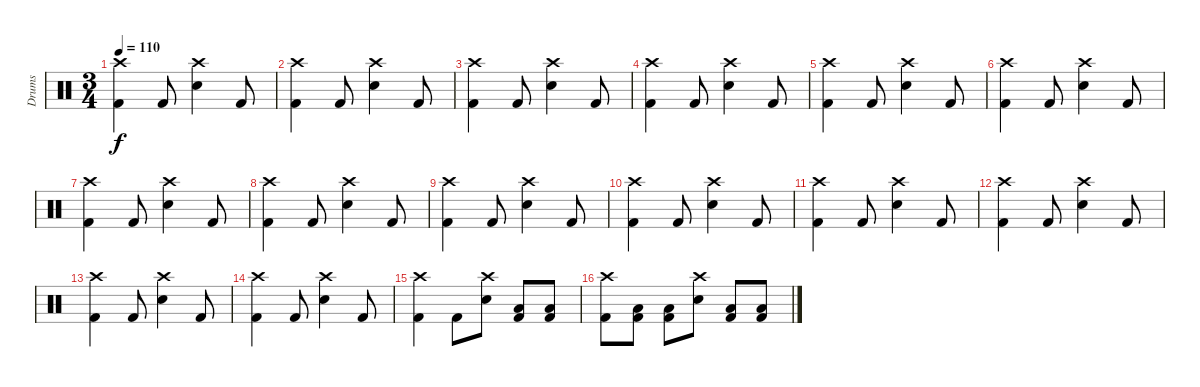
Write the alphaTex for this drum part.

\track ("Drums" "Drums") {instrument percussion}
\staff {score}
\articulation defaults
\ts (3 4)
\tempo 110
\clef neutral
\ks c
("Crash high (hit)" "Kick (hit) 2").4{dy f} "Kick (hit) 2".8 ("Crash high (hit)" "Snare (hit) 2").4 "Kick (hit) 2".8 |
("Crash high (hit)" "Kick (hit) 2").4 "Kick (hit) 2".8 ("Crash high (hit)" "Snare (hit) 2").4 "Kick (hit) 2".8 |
("Crash high (hit)" "Kick (hit) 2").4 "Kick (hit) 2".8 ("Crash high (hit)" "Snare (hit) 2").4 "Kick (hit) 2".8 |
("Crash high (hit)" "Kick (hit) 2").4 "Kick (hit) 2".8 ("Crash high (hit)" "Snare (hit) 2").4 "Kick (hit) 2".8 |
("Crash high (hit)" "Kick (hit) 2").4 "Kick (hit) 2".8 ("Crash high (hit)" "Snare (hit) 2").4 "Kick (hit) 2".8 |
("Crash high (hit)" "Kick (hit) 2").4 "Kick (hit) 2".8 ("Crash high (hit)" "Snare (hit) 2").4 "Kick (hit) 2".8 |
("Crash high (hit)" "Kick (hit) 2").4 "Kick (hit) 2".8 ("Crash high (hit)" "Snare (hit) 2").4 "Kick (hit) 2".8 |
("Crash high (hit)" "Kick (hit) 2").4 "Kick (hit) 2".8 ("Crash high (hit)" "Snare (hit) 2").4 "Kick (hit) 2".8 |
("Crash high (hit)" "Kick (hit) 2").4 "Kick (hit) 2".8 ("Crash high (hit)" "Snare (hit) 2").4 "Kick (hit) 2".8 |
("Crash high (hit)" "Kick (hit) 2").4 "Kick (hit) 2".8 ("Crash high (hit)" "Snare (hit) 2").4 "Kick (hit) 2".8 |
("Crash high (hit)" "Kick (hit) 2").4 "Kick (hit) 2".8 ("Crash high (hit)" "Snare (hit) 2").4 "Kick (hit) 2".8 |
("Crash high (hit)" "Kick (hit) 2").4 "Kick (hit) 2".8 ("Crash high (hit)" "Snare (hit) 2").4 "Kick (hit) 2".8 |
("Crash high (hit)" "Kick (hit) 2").4 "Kick (hit) 2".8 ("Crash high (hit)" "Snare (hit) 2").4 "Kick (hit) 2".8 |
("Crash high (hit)" "Kick (hit) 2").4 "Kick (hit) 2".8 ("Crash high (hit)" "Snare (hit) 2").4 "Kick (hit) 2".8 |
("Crash high (hit)" "Kick (hit) 2").4 "Kick (hit) 2".8 ("Crash high (hit)" "Snare (hit) 2").8 ("Low Tom (hit)" "Kick (hit) 2").8 ("Low Tom (hit)" "Kick (hit) 2").8 |
("Crash high (hit)" "Kick (hit) 2").8 ("Low Tom (hit)" "Kick (hit) 2").8 ("Low Tom (hit)" "Kick (hit) 2").8 ("Crash high (hit)" "Snare (hit) 2").8 ("Low Tom (hit)" "Kick (hit) 2").8 ("Low Tom (hit)" "Kick (hit) 2").8
